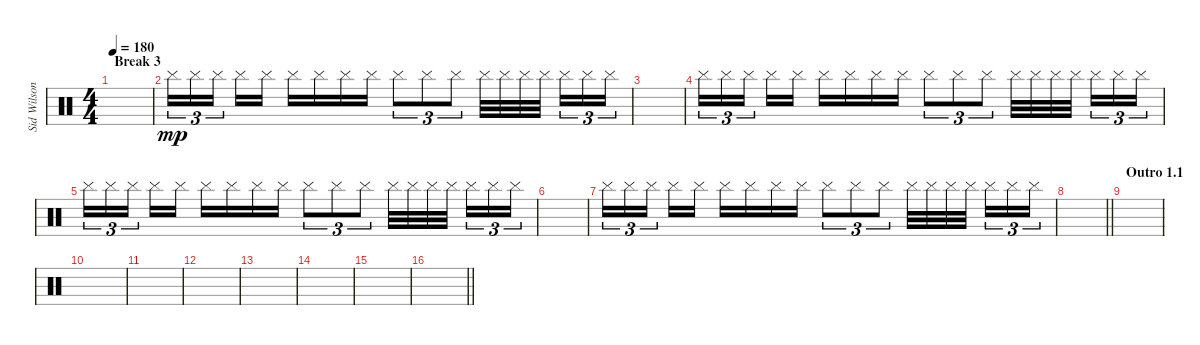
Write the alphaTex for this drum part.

\track ("Sid Wilson" "Sid Wilson") {instrument percussion}
\staff {score}
\articulation defaults
\ts (4 4)
\section ("" "Break 3")
\tempo 180
\clef neutral
\ks c
|
"Cymbal (hit)".16{tu (3 2) dy mp} "Cymbal (hit)".16{tu (3 2)} "Cymbal (hit)".16{tu (3 2) beam splitsecondary} "Cymbal (hit)".16 "Cymbal (hit)".16 "Cymbal (hit)".16 "Cymbal (hit)".16 "Cymbal (hit)".16 "Cymbal (hit)".16 "Cymbal (hit)".8{tu (3 2)} "Cymbal (hit)".8{tu (3 2)} "Cymbal (hit)".8{tu (3 2)} "Cymbal (hit)".32 "Cymbal (hit)".32 "Cymbal (hit)".32 "Cymbal (hit)".32{beam splitsecondary} "Cymbal (hit)".16{tu (3 2)} "Cymbal (hit)".16{tu (3 2)} "Cymbal (hit)".16{tu (3 2)} |
|
"Cymbal (hit)".16{tu (3 2)} "Cymbal (hit)".16{tu (3 2)} "Cymbal (hit)".16{tu (3 2) beam splitsecondary} "Cymbal (hit)".16 "Cymbal (hit)".16 "Cymbal (hit)".16 "Cymbal (hit)".16 "Cymbal (hit)".16 "Cymbal (hit)".16 "Cymbal (hit)".8{tu (3 2)} "Cymbal (hit)".8{tu (3 2)} "Cymbal (hit)".8{tu (3 2)} "Cymbal (hit)".32 "Cymbal (hit)".32 "Cymbal (hit)".32 "Cymbal (hit)".32{beam splitsecondary} "Cymbal (hit)".16{tu (3 2)} "Cymbal (hit)".16{tu (3 2)} "Cymbal (hit)".16{tu (3 2)} |
"Cymbal (hit)".16{tu (3 2)} "Cymbal (hit)".16{tu (3 2)} "Cymbal (hit)".16{tu (3 2) beam splitsecondary} "Cymbal (hit)".16 "Cymbal (hit)".16 "Cymbal (hit)".16 "Cymbal (hit)".16 "Cymbal (hit)".16 "Cymbal (hit)".16 "Cymbal (hit)".8{tu (3 2)} "Cymbal (hit)".8{tu (3 2)} "Cymbal (hit)".8{tu (3 2)} "Cymbal (hit)".32 "Cymbal (hit)".32 "Cymbal (hit)".32 "Cymbal (hit)".32{beam splitsecondary} "Cymbal (hit)".16{tu (3 2)} "Cymbal (hit)".16{tu (3 2)} "Cymbal (hit)".16{tu (3 2)} |
|
"Cymbal (hit)".16{tu (3 2)} "Cymbal (hit)".16{tu (3 2)} "Cymbal (hit)".16{tu (3 2) beam splitsecondary} "Cymbal (hit)".16 "Cymbal (hit)".16 "Cymbal (hit)".16 "Cymbal (hit)".16 "Cymbal (hit)".16 "Cymbal (hit)".16 "Cymbal (hit)".8{tu (3 2)} "Cymbal (hit)".8{tu (3 2)} "Cymbal (hit)".8{tu (3 2)} "Cymbal (hit)".32 "Cymbal (hit)".32 "Cymbal (hit)".32 "Cymbal (hit)".32{beam splitsecondary} "Cymbal (hit)".16{tu (3 2)} "Cymbal (hit)".16{tu (3 2)} "Cymbal (hit)".16{tu (3 2)} |
\barLineRight lightlight
|
\section ("" "Outro 1.1")
|
|
|
|
|
|
|
\barLineRight lightlight
